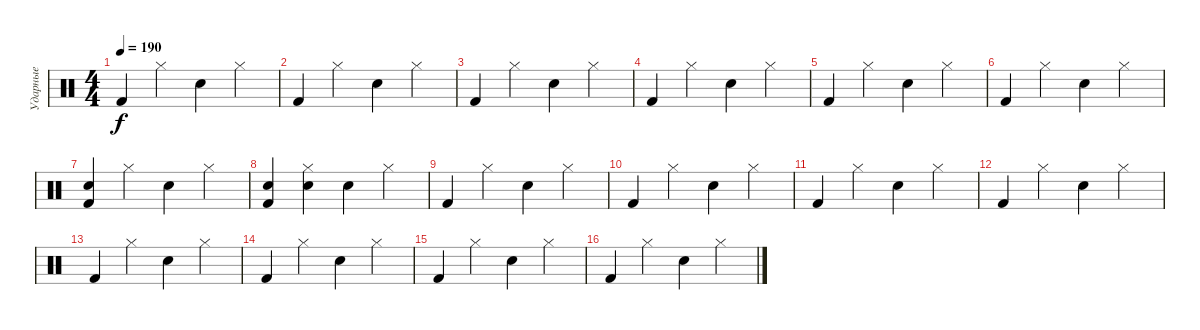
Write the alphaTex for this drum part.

\track ("Ударные" "Ударные") {instrument percussion}
\staff {score}
\articulation defaults
\ts (4 4)
\tempo 190
\clef neutral
\ks c "Kick (hit) 2".4{dy f} "Hi-Hat (closed)".4 "Snare (hit) 2".4 "Hi-Hat (closed)".4
|
"Kick (hit) 2".4 "Hi-Hat (closed)".4 "Snare (hit) 2".4 "Hi-Hat (closed)".4 |
"Kick (hit) 2".4 "Hi-Hat (closed)".4 "Snare (hit) 2".4 "Hi-Hat (closed)".4 |
"Kick (hit) 2".4 "Hi-Hat (closed)".4 "Snare (hit) 2".4 "Hi-Hat (closed)".4 |
"Kick (hit) 2".4 "Hi-Hat (closed)".4 "Snare (hit) 2".4 "Hi-Hat (closed)".4 |
"Kick (hit) 2".4 "Hi-Hat (closed)".4 "Snare (hit) 2".4 "Hi-Hat (closed)".4 |
("Kick (hit) 2" "Snare (hit) 2").4 "Hi-Hat (closed)".4 "Snare (hit) 2".4 "Hi-Hat (closed)".4 |
("Kick (hit) 2" "Snare (hit) 2").4 ("Hi-Hat (closed)" "Snare (hit) 2").4 "Snare (hit) 2".4 "Hi-Hat (closed)".4 |
"Kick (hit) 2".4 "Hi-Hat (closed)".4 "Snare (hit) 2".4 "Hi-Hat (closed)".4 |
"Kick (hit) 2".4 "Hi-Hat (closed)".4 "Snare (hit) 2".4 "Hi-Hat (closed)".4 |
"Kick (hit) 2".4 "Hi-Hat (closed)".4 "Snare (hit) 2".4 "Hi-Hat (closed)".4 |
"Kick (hit) 2".4 "Hi-Hat (closed)".4 "Snare (hit) 2".4 "Hi-Hat (closed)".4 |
"Kick (hit) 2".4 "Hi-Hat (closed)".4 "Snare (hit) 2".4 "Hi-Hat (closed)".4 |
"Kick (hit) 2".4 "Hi-Hat (closed)".4 "Snare (hit) 2".4 "Hi-Hat (closed)".4 |
"Kick (hit) 2".4 "Hi-Hat (closed)".4 "Snare (hit) 2".4 "Hi-Hat (closed)".4 |
"Kick (hit) 2".4 "Hi-Hat (closed)".4 "Snare (hit) 2".4 "Hi-Hat (closed)".4
